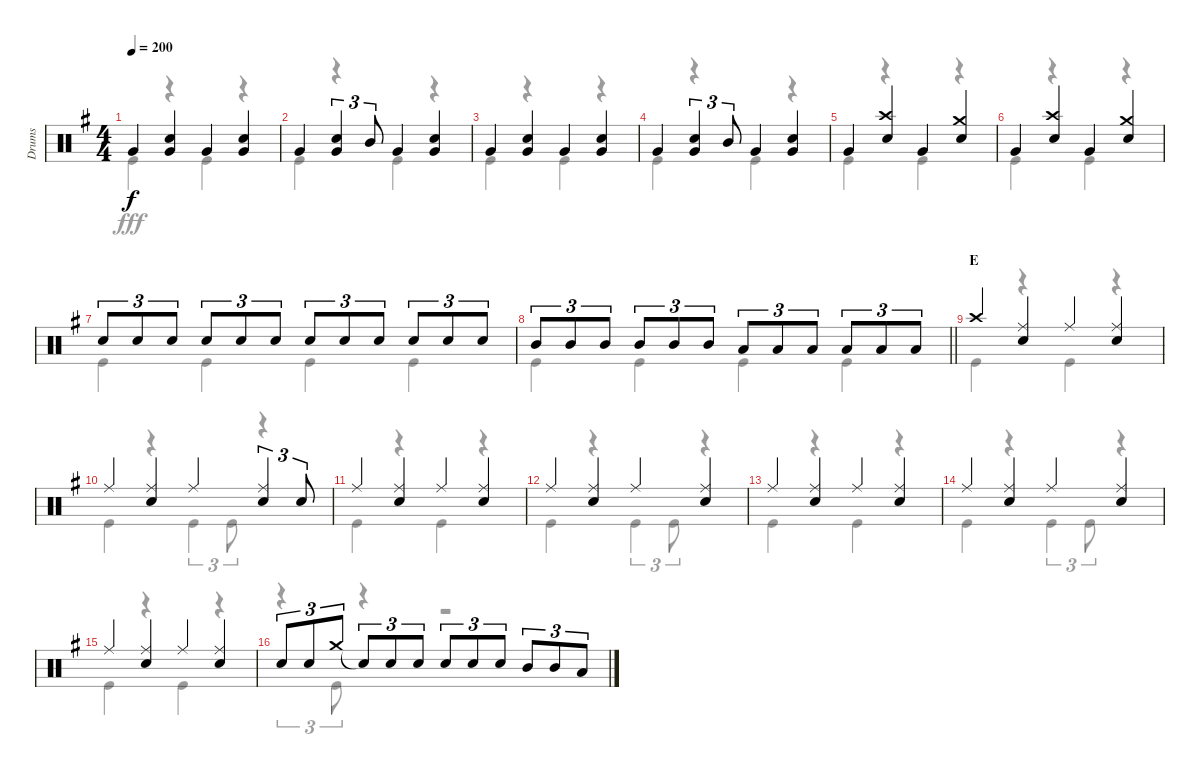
\track ("Drums" "Drums") {instrument percussion}
\staff {score}
\articulation defaults
\voice
\ts (4 4)
\tempo 200
\clef neutral
\ks g "Very Low Tom (hit)".4{dy f}
("Snare (hit) 2" "Very Low Tom (hit)").4 "Very Low Tom (hit)".4 ("Snare (hit) 2" "Very Low Tom (hit)").4 |
"Very Low Tom (hit)".4 ("Snare (hit) 2" "Very Low Tom (hit)").4{tu (3 2)} "Mid Tom (hit)".8{tu (3 2)} "Very Low Tom (hit)".4 ("Snare (hit) 2" "Very Low Tom (hit)").4 |
"Very Low Tom (hit)".4 ("Snare (hit) 2" "Very Low Tom (hit)").4 "Very Low Tom (hit)".4 ("Snare (hit) 2" "Very Low Tom (hit)").4 |
"Very Low Tom (hit)".4 ("Snare (hit) 2" "Very Low Tom (hit)").4{tu (3 2)} "Mid Tom (hit)".8{tu (3 2)} "Very Low Tom (hit)".4 ("Snare (hit) 2" "Very Low Tom (hit)").4 |
"Very Low Tom (hit)".4 ("Crash high (hit)" "Snare (hit) 2").4 "Very Low Tom (hit)".4 ("Crash medium (hit)" "Snare (hit) 2").4 |
"Very Low Tom (hit)".4 ("Crash high (hit)" "Snare (hit) 2").4 "Very Low Tom (hit)".4 ("Crash medium (hit)" "Snare (hit) 2").4 |
"Snare (hit) 2".8{tu (3 2)} "Snare (hit) 2".8{tu (3 2)} "Snare (hit) 2".8{tu (3 2)} "Snare (hit) 2".8{tu (3 2)} "Snare (hit) 2".8{tu (3 2)} "Snare (hit) 2".8{tu (3 2)} "Snare (hit) 2".8{tu (3 2)} "Snare (hit) 2".8{tu (3 2)} "Snare (hit) 2".8{tu (3 2)} "Snare (hit) 2".8{tu (3 2)} "Snare (hit) 2".8{tu (3 2)} "Snare (hit) 2".8{tu (3 2)} |
\barLineRight lightlight "Mid Tom (hit)".8{tu (3 2)} "Mid Tom (hit)".8{tu (3 2)} "Mid Tom (hit)".8{tu (3 2)} "Mid Tom (hit)".8{tu (3 2)} "Mid Tom (hit)".8{tu (3 2)} "Mid Tom (hit)".8{tu (3 2)} "Low Tom (hit)".8{tu (3 2)} "Low Tom (hit)".8{tu (3 2)} "Low Tom (hit)".8{tu (3 2)} "Low Tom (hit)".8{tu (3 2)} "Low Tom (hit)".8{tu (3 2)} "Low Tom (hit)".8{tu (3 2)}
|
\section ("" "E")
"Crash high (hit)".4 ("Ride (middle)" "Snare (hit) 2").4 "Ride (middle)".4 ("Ride (middle)" "Snare (hit) 2").4 |
"Ride (middle)".4 ("Ride (middle)" "Snare (hit) 2").4 "Ride (middle)".4 ("Ride (middle)" "Snare (hit) 2").4{tu (3 2)} "Snare (hit) 2".8{tu (3 2)} |
"Ride (middle)".4 ("Ride (middle)" "Snare (hit) 2").4 "Ride (middle)".4 ("Ride (middle)" "Snare (hit) 2").4 |
"Ride (middle)".4 ("Ride (middle)" "Snare (hit) 2").4 "Ride (middle)".4 ("Ride (middle)" "Snare (hit) 2").4 |
"Ride (middle)".4 ("Ride (middle)" "Snare (hit) 2").4 "Ride (middle)".4 ("Ride (middle)" "Snare (hit) 2").4 |
"Ride (middle)".4 ("Ride (middle)" "Snare (hit) 2").4 "Ride (middle)".4 ("Ride (middle)" "Snare (hit) 2").4 |
"Ride (middle)".4 ("Ride (middle)" "Snare (hit) 2").4 "Ride (middle)".4 ("Ride (middle)" "Snare (hit) 2").4 |
"Snare (hit) 2".8{tu (3 2)} "Snare (hit) 2".8{tu (3 2)} "Crash medium (hit)".8{tu (3 2)} "Snare (hit)"{t}.8{tu (3 2)} "Snare (hit) 2".8{tu (3 2)} "Snare (hit) 2".8{tu (3 2)} "Snare (hit) 2".8{tu (3 2)} "Snare (hit) 2".8{tu (3 2)} "Snare (hit) 2".8{tu (3 2)} "Mid Tom (hit)".8{tu (3 2)} "Mid Tom (hit)".8{tu (3 2)} "Low Tom (hit)".8{tu (3 2)}
\voice
\clef neutral
\ottava regular
\simile none
\ks g "Kick (hit)".4{dy fff}
r.4 "Kick (hit)".4 r.4 |
"Kick (hit)".4 r.4 "Kick (hit)".4 r.4 |
"Kick (hit)".4 r.4 "Kick (hit)".4 r.4 |
"Kick (hit)".4 r.4 "Kick (hit)".4 r.4 |
"Kick (hit)".4 r.4 "Kick (hit)".4 r.4 |
"Kick (hit)".4 r.4 "Kick (hit)".4 r.4 |
"Kick (hit)".4 "Kick (hit)".4 "Kick (hit)".4 "Kick (hit)".4 |
\barLineRight lightlight "Kick (hit)".4 "Kick (hit)".4 "Kick (hit)".4 "Kick (hit)".4
|
"Kick (hit)".4 r.4 "Kick (hit)".4 r.4 |
"Kick (hit)".4 r.4 "Kick (hit)".4{tu (3 2)} "Kick (hit)".8{tu (3 2)} r.4 |
"Kick (hit)".4 r.4 "Kick (hit)".4 r.4 |
"Kick (hit)".4 r.4 "Kick (hit)".4{tu (3 2)} "Kick (hit)".8{tu (3 2)} r.4 |
"Kick (hit)".4 r.4 "Kick (hit)".4 r.4 |
"Kick (hit)".4 r.4 "Kick (hit)".4{tu (3 2)} "Kick (hit)".8{tu (3 2)} r.4 |
"Kick (hit)".4 r.4 "Kick (hit)".4 r.4 |
r.4{tu (3 2)} "Kick (hit)".8{tu (3 2)} r.4 r.2
